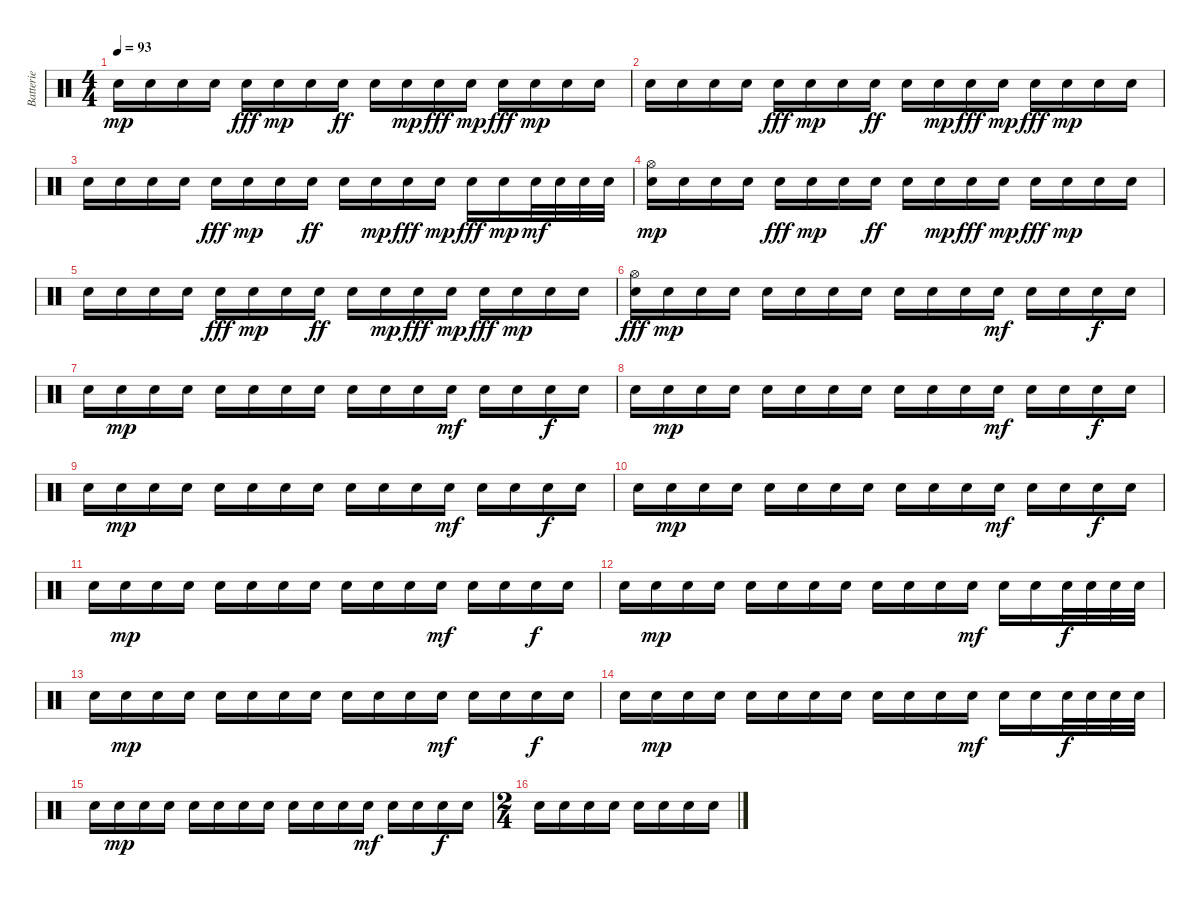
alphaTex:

\track ("Batterie" "Batterie") {instrument percussion}
\staff {score}
\articulation defaults
\ts (4 4)
\tempo 93
\clef neutral
\ks c "Snare (hit) 2".16{dy mp} "Snare (hit) 2".16 "Snare (hit) 2".16 "Snare (hit) 2".16 "Snare (hit) 2".16{dy fff} "Snare (hit) 2".16{dy mp} "Snare (hit) 2".16 "Snare (hit) 2".16{dy ff} "Snare (hit) 2".16 "Snare (hit) 2".16{dy mp} "Snare (hit) 2".16{dy fff} "Snare (hit) 2".16{dy mp} "Snare (hit) 2".16{dy fff} "Snare (hit) 2".16{dy mp} "Snare (hit) 2".16 "Snare (hit) 2".16
|
"Snare (hit) 2".16 "Snare (hit) 2".16 "Snare (hit) 2".16 "Snare (hit) 2".16 "Snare (hit) 2".16{dy fff} "Snare (hit) 2".16{dy mp} "Snare (hit) 2".16 "Snare (hit) 2".16{dy ff} "Snare (hit) 2".16 "Snare (hit) 2".16{dy mp} "Snare (hit) 2".16{dy fff} "Snare (hit) 2".16{dy mp} "Snare (hit) 2".16{dy fff} "Snare (hit) 2".16{dy mp} "Snare (hit) 2".16 "Snare (hit) 2".16 |
"Snare (hit) 2".16 "Snare (hit) 2".16 "Snare (hit) 2".16 "Snare (hit) 2".16 "Snare (hit) 2".16{dy fff} "Snare (hit) 2".16{dy mp} "Snare (hit) 2".16 "Snare (hit) 2".16{dy ff} "Snare (hit) 2".16 "Snare (hit) 2".16{dy mp} "Snare (hit) 2".16{dy fff} "Snare (hit) 2".16{dy mp} "Snare (hit) 2".16{dy fff} "Snare (hit) 2".16{dy mp} "Snare (hit) 2".32{dy mf} "Snare (hit) 2".32 "Snare (hit) 2".32 "Snare (hit) 2".32 |
("Hi-Hat (open)" "Snare (hit) 2").16{dy mp} "Snare (hit) 2".16 "Snare (hit) 2".16 "Snare (hit) 2".16 "Snare (hit) 2".16{dy fff} "Snare (hit) 2".16{dy mp} "Snare (hit) 2".16 "Snare (hit) 2".16{dy ff} "Snare (hit) 2".16 "Snare (hit) 2".16{dy mp} "Snare (hit) 2".16{dy fff} "Snare (hit) 2".16{dy mp} "Snare (hit) 2".16{dy fff} "Snare (hit) 2".16{dy mp} "Snare (hit) 2".16 "Snare (hit) 2".16 |
"Snare (hit) 2".16 "Snare (hit) 2".16 "Snare (hit) 2".16 "Snare (hit) 2".16 "Snare (hit) 2".16{dy fff} "Snare (hit) 2".16{dy mp} "Snare (hit) 2".16 "Snare (hit) 2".16{dy ff} "Snare (hit) 2".16 "Snare (hit) 2".16{dy mp} "Snare (hit) 2".16{dy fff} "Snare (hit) 2".16{dy mp} "Snare (hit) 2".16{dy fff} "Snare (hit) 2".16{dy mp} "Snare (hit) 2".16 "Snare (hit) 2".16 |
("Hi-Hat (open)" "Snare (hit) 2").16{dy fff} "Snare (hit) 2".16{dy mp} "Snare (hit) 2".16 "Snare (hit) 2".16 "Snare (hit) 2".16 "Snare (hit) 2".16 "Snare (hit) 2".16 "Snare (hit) 2".16 "Snare (hit) 2".16 "Snare (hit) 2".16 "Snare (hit) 2".16 "Snare (hit) 2".16{dy mf} "Snare (hit) 2".16 "Snare (hit) 2".16 "Snare (hit) 2".16{dy f} "Snare (hit) 2".16 |
"Snare (hit) 2".16 "Snare (hit) 2".16{dy mp} "Snare (hit) 2".16 "Snare (hit) 2".16 "Snare (hit) 2".16 "Snare (hit) 2".16 "Snare (hit) 2".16 "Snare (hit) 2".16 "Snare (hit) 2".16 "Snare (hit) 2".16 "Snare (hit) 2".16 "Snare (hit) 2".16{dy mf} "Snare (hit) 2".16 "Snare (hit) 2".16 "Snare (hit) 2".16{dy f} "Snare (hit) 2".16 |
"Snare (hit) 2".16 "Snare (hit) 2".16{dy mp} "Snare (hit) 2".16 "Snare (hit) 2".16 "Snare (hit) 2".16 "Snare (hit) 2".16 "Snare (hit) 2".16 "Snare (hit) 2".16 "Snare (hit) 2".16 "Snare (hit) 2".16 "Snare (hit) 2".16 "Snare (hit) 2".16{dy mf} "Snare (hit) 2".16 "Snare (hit) 2".16 "Snare (hit) 2".16{dy f} "Snare (hit) 2".16 |
"Snare (hit) 2".16 "Snare (hit) 2".16{dy mp} "Snare (hit) 2".16 "Snare (hit) 2".16 "Snare (hit) 2".16 "Snare (hit) 2".16 "Snare (hit) 2".16 "Snare (hit) 2".16 "Snare (hit) 2".16 "Snare (hit) 2".16 "Snare (hit) 2".16 "Snare (hit) 2".16{dy mf} "Snare (hit) 2".16 "Snare (hit) 2".16 "Snare (hit) 2".16{dy f} "Snare (hit) 2".16 |
"Snare (hit) 2".16 "Snare (hit) 2".16{dy mp} "Snare (hit) 2".16 "Snare (hit) 2".16 "Snare (hit) 2".16 "Snare (hit) 2".16 "Snare (hit) 2".16 "Snare (hit) 2".16 "Snare (hit) 2".16 "Snare (hit) 2".16 "Snare (hit) 2".16 "Snare (hit) 2".16{dy mf} "Snare (hit) 2".16 "Snare (hit) 2".16 "Snare (hit) 2".16{dy f} "Snare (hit) 2".16 |
"Snare (hit) 2".16 "Snare (hit) 2".16{dy mp} "Snare (hit) 2".16 "Snare (hit) 2".16 "Snare (hit) 2".16 "Snare (hit) 2".16 "Snare (hit) 2".16 "Snare (hit) 2".16 "Snare (hit) 2".16 "Snare (hit) 2".16 "Snare (hit) 2".16 "Snare (hit) 2".16{dy mf} "Snare (hit) 2".16 "Snare (hit) 2".16 "Snare (hit) 2".16{dy f} "Snare (hit) 2".16 |
"Snare (hit) 2".16 "Snare (hit) 2".16{dy mp} "Snare (hit) 2".16 "Snare (hit) 2".16 "Snare (hit) 2".16 "Snare (hit) 2".16 "Snare (hit) 2".16 "Snare (hit) 2".16 "Snare (hit) 2".16 "Snare (hit) 2".16 "Snare (hit) 2".16 "Snare (hit) 2".16{dy mf} "Snare (hit) 2".16 "Snare (hit) 2".16 "Snare (hit) 2".32{dy f} "Snare (hit) 2".32 "Snare (hit) 2".32 "Snare (hit) 2".32 |
"Snare (hit) 2".16 "Snare (hit) 2".16{dy mp} "Snare (hit) 2".16 "Snare (hit) 2".16 "Snare (hit) 2".16 "Snare (hit) 2".16 "Snare (hit) 2".16 "Snare (hit) 2".16 "Snare (hit) 2".16 "Snare (hit) 2".16 "Snare (hit) 2".16 "Snare (hit) 2".16{dy mf} "Snare (hit) 2".16 "Snare (hit) 2".16 "Snare (hit) 2".16{dy f} "Snare (hit) 2".16 |
"Snare (hit) 2".16 "Snare (hit) 2".16{dy mp} "Snare (hit) 2".16 "Snare (hit) 2".16 "Snare (hit) 2".16 "Snare (hit) 2".16 "Snare (hit) 2".16 "Snare (hit) 2".16 "Snare (hit) 2".16 "Snare (hit) 2".16 "Snare (hit) 2".16 "Snare (hit) 2".16{dy mf} "Snare (hit) 2".16 "Snare (hit) 2".16 "Snare (hit) 2".32{dy f} "Snare (hit) 2".32 "Snare (hit) 2".32 "Snare (hit) 2".32 |
"Snare (hit) 2".16 "Snare (hit) 2".16{dy mp} "Snare (hit) 2".16 "Snare (hit) 2".16 "Snare (hit) 2".16 "Snare (hit) 2".16 "Snare (hit) 2".16 "Snare (hit) 2".16 "Snare (hit) 2".16 "Snare (hit) 2".16 "Snare (hit) 2".16 "Snare (hit) 2".16{dy mf} "Snare (hit) 2".16 "Snare (hit) 2".16 "Snare (hit) 2".16{dy f} "Snare (hit) 2".16 |
\ts (2 4)
"Snare (hit) 2".16 "Snare (hit) 2".16 "Snare (hit) 2".16 "Snare (hit) 2".16 "Snare (hit) 2".16 "Snare (hit) 2".16 "Snare (hit) 2".16 "Snare (hit) 2".16
